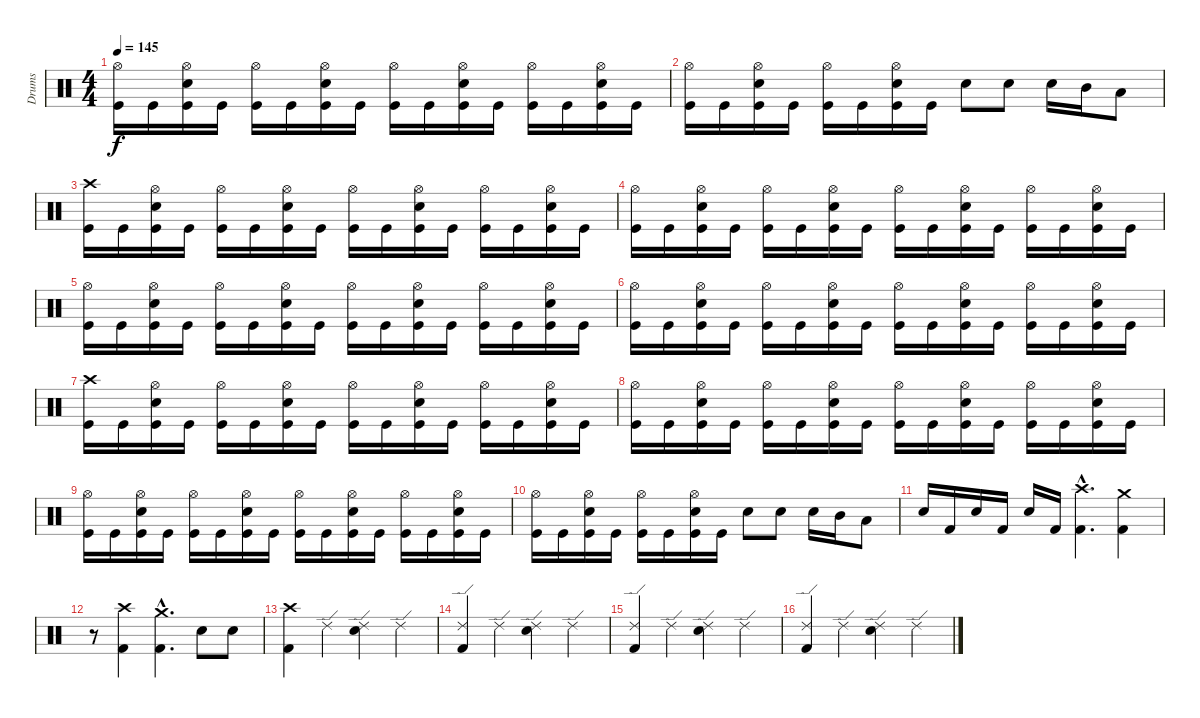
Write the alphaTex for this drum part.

\track ("Drums" "Drums") {instrument percussion}
\staff {score}
\articulation defaults
\ts (4 4)
\tempo 145
\clef neutral
\ks c
("Hi-Hat (open)" "Kick (hit)").16{dy f} "Kick (hit)".16 ("Hi-Hat (open)" "Snare (hit) 2" "Kick (hit)").16 "Kick (hit)".16 ("Hi-Hat (open)" "Kick (hit)").16 "Kick (hit)".16 ("Hi-Hat (open)" "Snare (hit) 2" "Kick (hit)").16 "Kick (hit)".16 ("Hi-Hat (open)" "Kick (hit)").16 "Kick (hit)".16 ("Hi-Hat (open)" "Snare (hit) 2" "Kick (hit)").16 "Kick (hit)".16 ("Hi-Hat (open)" "Kick (hit)").16 "Kick (hit)".16 ("Hi-Hat (open)" "Snare (hit) 2" "Kick (hit)").16 "Kick (hit)".16 |
("Hi-Hat (open)" "Kick (hit)").16 "Kick (hit)".16 ("Hi-Hat (open)" "Snare (hit) 2" "Kick (hit)").16 "Kick (hit)".16 ("Hi-Hat (open)" "Kick (hit)").16 "Kick (hit)".16 ("Hi-Hat (open)" "Snare (hit) 2" "Kick (hit)").16 "Kick (hit)".16 "Snare (hit) 2".8 "Snare (hit) 2".8 "Snare (hit) 2".16 "Mid Tom (hit)".16 "Low Tom (hit)".8 |
("Crash high (hit)" "Kick (hit)").16 "Kick (hit)".16 ("Hi-Hat (open)" "Snare (hit) 2" "Kick (hit)").16 "Kick (hit)".16 ("Hi-Hat (open)" "Kick (hit)").16 "Kick (hit)".16 ("Hi-Hat (open)" "Snare (hit) 2" "Kick (hit)").16 "Kick (hit)".16 ("Hi-Hat (open)" "Kick (hit)").16 "Kick (hit)".16 ("Hi-Hat (open)" "Snare (hit) 2" "Kick (hit)").16 "Kick (hit)".16 ("Hi-Hat (open)" "Kick (hit)").16 "Kick (hit)".16 ("Hi-Hat (open)" "Snare (hit) 2" "Kick (hit)").16 "Kick (hit)".16 |
("Hi-Hat (open)" "Kick (hit)").16 "Kick (hit)".16 ("Hi-Hat (open)" "Snare (hit) 2" "Kick (hit)").16 "Kick (hit)".16 ("Hi-Hat (open)" "Kick (hit)").16 "Kick (hit)".16 ("Hi-Hat (open)" "Snare (hit) 2" "Kick (hit)").16 "Kick (hit)".16 ("Hi-Hat (open)" "Kick (hit)").16 "Kick (hit)".16 ("Hi-Hat (open)" "Snare (hit) 2" "Kick (hit)").16 "Kick (hit)".16 ("Hi-Hat (open)" "Kick (hit)").16 "Kick (hit)".16 ("Hi-Hat (open)" "Snare (hit) 2" "Kick (hit)").16 "Kick (hit)".16 |
("Hi-Hat (open)" "Kick (hit)").16 "Kick (hit)".16 ("Hi-Hat (open)" "Snare (hit) 2" "Kick (hit)").16 "Kick (hit)".16 ("Hi-Hat (open)" "Kick (hit)").16 "Kick (hit)".16 ("Hi-Hat (open)" "Snare (hit) 2" "Kick (hit)").16 "Kick (hit)".16 ("Hi-Hat (open)" "Kick (hit)").16 "Kick (hit)".16 ("Hi-Hat (open)" "Snare (hit) 2" "Kick (hit)").16 "Kick (hit)".16 ("Hi-Hat (open)" "Kick (hit)").16 "Kick (hit)".16 ("Hi-Hat (open)" "Snare (hit) 2" "Kick (hit)").16 "Kick (hit)".16 |
("Hi-Hat (open)" "Kick (hit)").16 "Kick (hit)".16 ("Hi-Hat (open)" "Snare (hit) 2" "Kick (hit)").16 "Kick (hit)".16 ("Hi-Hat (open)" "Kick (hit)").16 "Kick (hit)".16 ("Hi-Hat (open)" "Snare (hit) 2" "Kick (hit)").16 "Kick (hit)".16 ("Hi-Hat (open)" "Kick (hit)").16 "Kick (hit)".16 ("Hi-Hat (open)" "Snare (hit) 2" "Kick (hit)").16 "Kick (hit)".16 ("Hi-Hat (open)" "Kick (hit)").16 "Kick (hit)".16 ("Hi-Hat (open)" "Snare (hit) 2" "Kick (hit)").16 "Kick (hit)".16 |
("Crash high (hit)" "Kick (hit)").16 "Kick (hit)".16 ("Hi-Hat (open)" "Snare (hit) 2" "Kick (hit)").16 "Kick (hit)".16 ("Hi-Hat (open)" "Kick (hit)").16 "Kick (hit)".16 ("Hi-Hat (open)" "Snare (hit) 2" "Kick (hit)").16 "Kick (hit)".16 ("Hi-Hat (open)" "Kick (hit)").16 "Kick (hit)".16 ("Hi-Hat (open)" "Snare (hit) 2" "Kick (hit)").16 "Kick (hit)".16 ("Hi-Hat (open)" "Kick (hit)").16 "Kick (hit)".16 ("Hi-Hat (open)" "Snare (hit) 2" "Kick (hit)").16 "Kick (hit)".16 |
("Hi-Hat (open)" "Kick (hit)").16 "Kick (hit)".16 ("Hi-Hat (open)" "Snare (hit) 2" "Kick (hit)").16 "Kick (hit)".16 ("Hi-Hat (open)" "Kick (hit)").16 "Kick (hit)".16 ("Hi-Hat (open)" "Snare (hit) 2" "Kick (hit)").16 "Kick (hit)".16 ("Hi-Hat (open)" "Kick (hit)").16 "Kick (hit)".16 ("Hi-Hat (open)" "Snare (hit) 2" "Kick (hit)").16 "Kick (hit)".16 ("Hi-Hat (open)" "Kick (hit)").16 "Kick (hit)".16 ("Hi-Hat (open)" "Snare (hit) 2" "Kick (hit)").16 "Kick (hit)".16 |
("Hi-Hat (open)" "Kick (hit)").16 "Kick (hit)".16 ("Hi-Hat (open)" "Snare (hit) 2" "Kick (hit)").16 "Kick (hit)".16 ("Hi-Hat (open)" "Kick (hit)").16 "Kick (hit)".16 ("Hi-Hat (open)" "Snare (hit) 2" "Kick (hit)").16 "Kick (hit)".16 ("Hi-Hat (open)" "Kick (hit)").16 "Kick (hit)".16 ("Hi-Hat (open)" "Snare (hit) 2" "Kick (hit)").16 "Kick (hit)".16 ("Hi-Hat (open)" "Kick (hit)").16 "Kick (hit)".16 ("Hi-Hat (open)" "Snare (hit) 2" "Kick (hit)").16 "Kick (hit)".16 |
("Hi-Hat (open)" "Kick (hit)").16 "Kick (hit)".16 ("Hi-Hat (open)" "Snare (hit) 2" "Kick (hit)").16 "Kick (hit)".16 ("Hi-Hat (open)" "Kick (hit)").16 "Kick (hit)".16 ("Hi-Hat (open)" "Snare (hit) 2" "Kick (hit)").16 "Kick (hit)".16 "Snare (hit) 2".8 "Snare (hit) 2".8 "Snare (hit) 2".16 "Mid Tom (hit)".16 "Low Tom (hit)".8 |
"Snare (hit) 2".16 "Kick (hit) 2".16 "Snare (hit) 2".16 "Kick (hit) 2".16 "Snare (hit) 2".16 "Kick (hit) 2".16 ("Crash high (hit)"{hac} "Kick (hit) 2"{hac}).4{d} ("Crash medium (hit)" "Kick (hit) 2").4 |
r.8 ("Crash high (hit)" "Kick (hit) 2").4 ("Crash medium (hit)"{hac} "Kick (hit) 2"{hac}).4{d} "Snare (hit) 2".8 "Snare (hit) 2".8 |
("Crash high (hit)" "Kick (hit) 2").4 "Ride (edge) 2".4 ("Ride (edge) 2" "Snare (hit) 2").4 "Ride (edge) 2".4 |
("Ride (edge) 2" "Kick (hit) 2").4 "Ride (edge) 2".4 ("Ride (edge) 2" "Snare (hit) 2").4 "Ride (edge) 2".4 |
("Ride (edge) 2" "Kick (hit) 2").4 "Ride (edge) 2".4 ("Ride (edge) 2" "Snare (hit) 2").4 "Ride (edge) 2".4 |
("Ride (edge) 2" "Kick (hit) 2").4 "Ride (edge) 2".4 ("Ride (edge) 2" "Snare (hit) 2").4 "Ride (edge) 2".4
